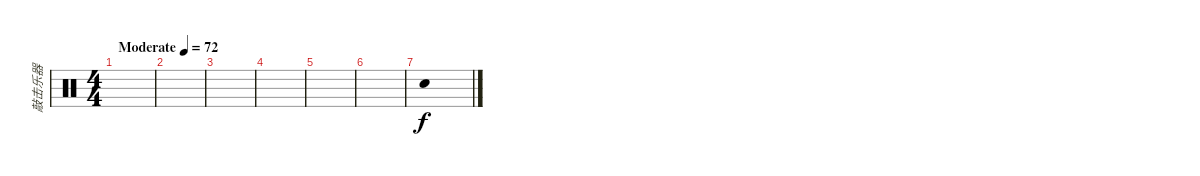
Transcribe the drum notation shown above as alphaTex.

\track ("敲击乐器" "敲击乐器") {instrument percussion}
\staff {score}
\articulation defaults
\ts (4 4)
\tempo (72 "Moderate")
\clef neutral
\ks c
|
|
|
|
|
|
"Metronome (bell)".1
